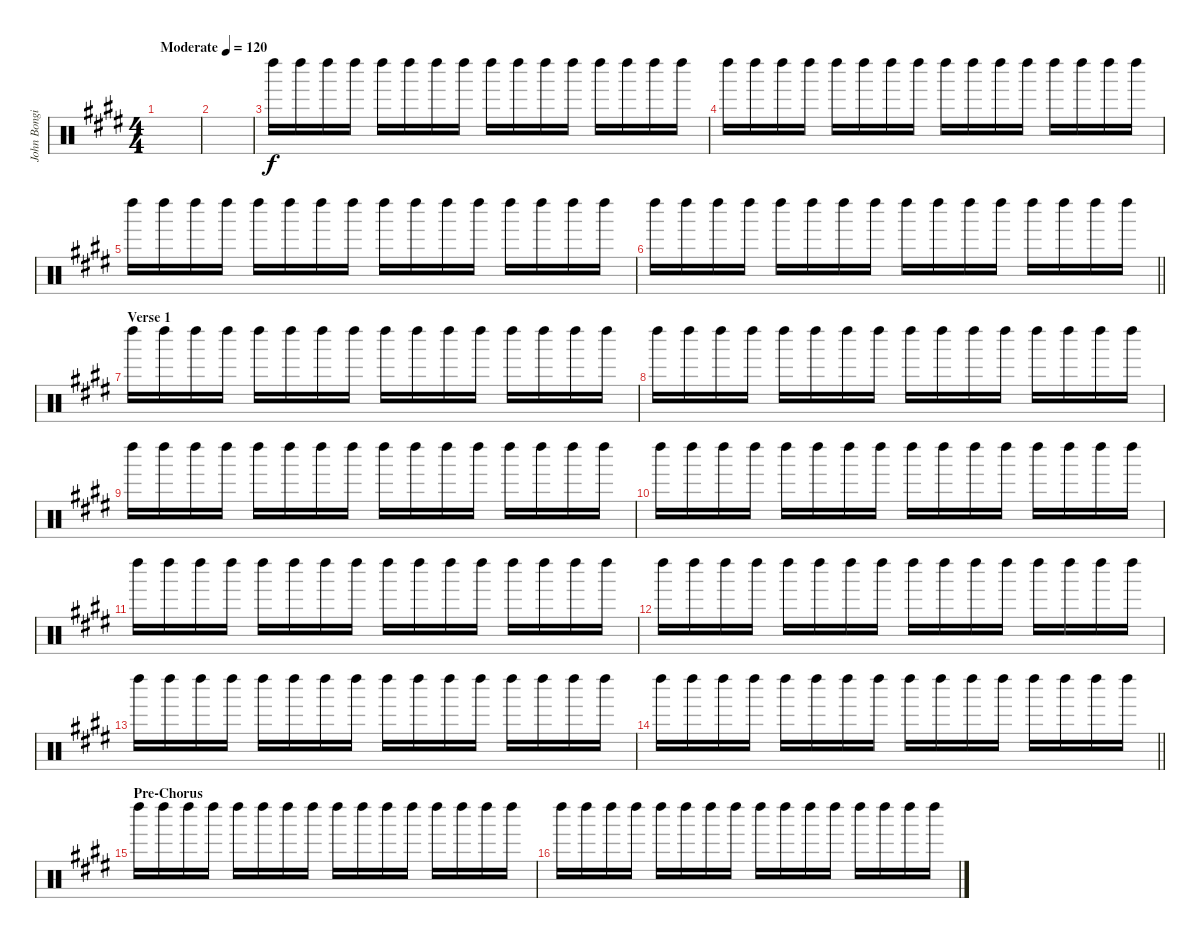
\track ("John Bongiovi (Maracas)" "John Bongi") {instrument percussion}
\staff {score}
\articulation defaults
\ts (4 4)
\tempo (120 "Moderate")
\clef neutral
\ks c#minor
|
|
"Left Maraca (hit)".16 "Left Maraca (hit)".16 "Left Maraca (hit)".16 "Left Maraca (hit)".16 "Left Maraca (hit)".16 "Left Maraca (hit)".16 "Left Maraca (hit)".16 "Left Maraca (hit)".16 "Left Maraca (hit)".16 "Left Maraca (hit)".16 "Left Maraca (hit)".16 "Left Maraca (hit)".16 "Left Maraca (hit)".16 "Left Maraca (hit)".16 "Left Maraca (hit)".16 "Left Maraca (hit)".16 |
"Left Maraca (hit)".16 "Left Maraca (hit)".16 "Left Maraca (hit)".16 "Left Maraca (hit)".16 "Left Maraca (hit)".16 "Left Maraca (hit)".16 "Left Maraca (hit)".16 "Left Maraca (hit)".16 "Left Maraca (hit)".16 "Left Maraca (hit)".16 "Left Maraca (hit)".16 "Left Maraca (hit)".16 "Left Maraca (hit)".16 "Left Maraca (hit)".16 "Left Maraca (hit)".16 "Left Maraca (hit)".16 |
"Left Maraca (hit)".16 "Left Maraca (hit)".16 "Left Maraca (hit)".16 "Left Maraca (hit)".16 "Left Maraca (hit)".16 "Left Maraca (hit)".16 "Left Maraca (hit)".16 "Left Maraca (hit)".16 "Left Maraca (hit)".16 "Left Maraca (hit)".16 "Left Maraca (hit)".16 "Left Maraca (hit)".16 "Left Maraca (hit)".16 "Left Maraca (hit)".16 "Left Maraca (hit)".16 "Left Maraca (hit)".16 |
\barLineRight lightlight "Left Maraca (hit)".16 "Left Maraca (hit)".16 "Left Maraca (hit)".16 "Left Maraca (hit)".16 "Left Maraca (hit)".16 "Left Maraca (hit)".16 "Left Maraca (hit)".16 "Left Maraca (hit)".16 "Left Maraca (hit)".16 "Left Maraca (hit)".16 "Left Maraca (hit)".16 "Left Maraca (hit)".16 "Left Maraca (hit)".16 "Left Maraca (hit)".16 "Left Maraca (hit)".16 "Left Maraca (hit)".16
|
\section ("" "Verse 1")
"Left Maraca (hit)".16 "Left Maraca (hit)".16 "Left Maraca (hit)".16 "Left Maraca (hit)".16 "Left Maraca (hit)".16 "Left Maraca (hit)".16 "Left Maraca (hit)".16 "Left Maraca (hit)".16 "Left Maraca (hit)".16 "Left Maraca (hit)".16 "Left Maraca (hit)".16 "Left Maraca (hit)".16 "Left Maraca (hit)".16 "Left Maraca (hit)".16 "Left Maraca (hit)".16 "Left Maraca (hit)".16 |
"Left Maraca (hit)".16 "Left Maraca (hit)".16 "Left Maraca (hit)".16 "Left Maraca (hit)".16 "Left Maraca (hit)".16 "Left Maraca (hit)".16 "Left Maraca (hit)".16 "Left Maraca (hit)".16 "Left Maraca (hit)".16 "Left Maraca (hit)".16 "Left Maraca (hit)".16 "Left Maraca (hit)".16 "Left Maraca (hit)".16 "Left Maraca (hit)".16 "Left Maraca (hit)".16 "Left Maraca (hit)".16 |
"Left Maraca (hit)".16 "Left Maraca (hit)".16 "Left Maraca (hit)".16 "Left Maraca (hit)".16 "Left Maraca (hit)".16 "Left Maraca (hit)".16 "Left Maraca (hit)".16 "Left Maraca (hit)".16 "Left Maraca (hit)".16 "Left Maraca (hit)".16 "Left Maraca (hit)".16 "Left Maraca (hit)".16 "Left Maraca (hit)".16 "Left Maraca (hit)".16 "Left Maraca (hit)".16 "Left Maraca (hit)".16 |
"Left Maraca (hit)".16 "Left Maraca (hit)".16 "Left Maraca (hit)".16 "Left Maraca (hit)".16 "Left Maraca (hit)".16 "Left Maraca (hit)".16 "Left Maraca (hit)".16 "Left Maraca (hit)".16 "Left Maraca (hit)".16 "Left Maraca (hit)".16 "Left Maraca (hit)".16 "Left Maraca (hit)".16 "Left Maraca (hit)".16 "Left Maraca (hit)".16 "Left Maraca (hit)".16 "Left Maraca (hit)".16 |
"Left Maraca (hit)".16 "Left Maraca (hit)".16 "Left Maraca (hit)".16 "Left Maraca (hit)".16 "Left Maraca (hit)".16 "Left Maraca (hit)".16 "Left Maraca (hit)".16 "Left Maraca (hit)".16 "Left Maraca (hit)".16 "Left Maraca (hit)".16 "Left Maraca (hit)".16 "Left Maraca (hit)".16 "Left Maraca (hit)".16 "Left Maraca (hit)".16 "Left Maraca (hit)".16 "Left Maraca (hit)".16 |
"Left Maraca (hit)".16 "Left Maraca (hit)".16 "Left Maraca (hit)".16 "Left Maraca (hit)".16 "Left Maraca (hit)".16 "Left Maraca (hit)".16 "Left Maraca (hit)".16 "Left Maraca (hit)".16 "Left Maraca (hit)".16 "Left Maraca (hit)".16 "Left Maraca (hit)".16 "Left Maraca (hit)".16 "Left Maraca (hit)".16 "Left Maraca (hit)".16 "Left Maraca (hit)".16 "Left Maraca (hit)".16 |
"Left Maraca (hit)".16 "Left Maraca (hit)".16 "Left Maraca (hit)".16 "Left Maraca (hit)".16 "Left Maraca (hit)".16 "Left Maraca (hit)".16 "Left Maraca (hit)".16 "Left Maraca (hit)".16 "Left Maraca (hit)".16 "Left Maraca (hit)".16 "Left Maraca (hit)".16 "Left Maraca (hit)".16 "Left Maraca (hit)".16 "Left Maraca (hit)".16 "Left Maraca (hit)".16 "Left Maraca (hit)".16 |
\barLineRight lightlight "Left Maraca (hit)".16 "Left Maraca (hit)".16 "Left Maraca (hit)".16 "Left Maraca (hit)".16 "Left Maraca (hit)".16 "Left Maraca (hit)".16 "Left Maraca (hit)".16 "Left Maraca (hit)".16 "Left Maraca (hit)".16 "Left Maraca (hit)".16 "Left Maraca (hit)".16 "Left Maraca (hit)".16 "Left Maraca (hit)".16 "Left Maraca (hit)".16 "Left Maraca (hit)".16 "Left Maraca (hit)".16
|
\section ("" "Pre-Chorus")
"Left Maraca (hit)".16 "Left Maraca (hit)".16 "Left Maraca (hit)".16 "Left Maraca (hit)".16 "Left Maraca (hit)".16 "Left Maraca (hit)".16 "Left Maraca (hit)".16 "Left Maraca (hit)".16 "Left Maraca (hit)".16 "Left Maraca (hit)".16 "Left Maraca (hit)".16 "Left Maraca (hit)".16 "Left Maraca (hit)".16 "Left Maraca (hit)".16 "Left Maraca (hit)".16 "Left Maraca (hit)".16 |
"Left Maraca (hit)".16 "Left Maraca (hit)".16 "Left Maraca (hit)".16 "Left Maraca (hit)".16 "Left Maraca (hit)".16 "Left Maraca (hit)".16 "Left Maraca (hit)".16 "Left Maraca (hit)".16 "Left Maraca (hit)".16 "Left Maraca (hit)".16 "Left Maraca (hit)".16 "Left Maraca (hit)".16 "Left Maraca (hit)".16 "Left Maraca (hit)".16 "Left Maraca (hit)".16 "Left Maraca (hit)".16
